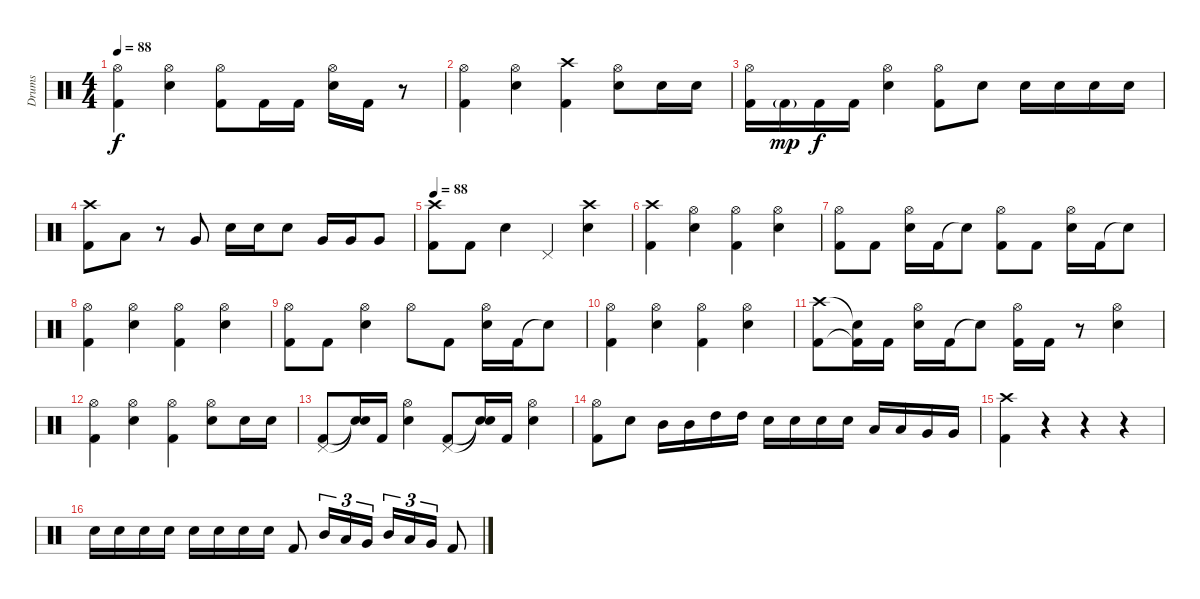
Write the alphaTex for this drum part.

\track ("Drums" "Drums") {instrument percussion}
\staff {score}
\articulation defaults
\ts (4 4)
\tempo 88
\clef neutral
\ks c
("Hi-Hat (open)" "Kick (hit) 2").4{dy f} ("Hi-Hat (open)" "Electric Snare (hit)").4 ("Hi-Hat (open)" "Kick (hit) 2").8 "Kick (hit) 2".16 "Kick (hit) 2".16 ("Hi-Hat (open)" "Electric Snare (hit)").16 "Kick (hit) 2".16 r.8 |
("Hi-Hat (open)" "Kick (hit) 2").4 ("Hi-Hat (open)" "Electric Snare (hit)").4 ("Crash high (hit)" "Kick (hit) 2").4 ("Hi-Hat (open)" "Electric Snare (hit)").8 "Electric Snare (hit)".16 "Electric Snare (hit)".16 |
("Hi-Hat (open)" "Kick (hit) 2").16 "Kick (hit) 2"{g}.16{dy mp} "Kick (hit) 2".16{dy f} "Kick (hit) 2".16 ("Hi-Hat (open)" "Electric Snare (hit)").4 ("Hi-Hat (open)" "Kick (hit) 2").8 "Electric Snare (hit)".8 "Electric Snare (hit)".16 "Electric Snare (hit)".16 "Electric Snare (hit)".16 "Electric Snare (hit)".16 |
("Crash high (hit)" "Kick (hit) 2").8 "Low Tom (hit)".8 r.8 "Very Low Tom (hit)".8 "Electric Snare (hit)".16 "Electric Snare (hit)".16 "Electric Snare (hit)".8 "Very Low Tom (hit)".16 "Very Low Tom (hit)".16 "Very Low Tom (hit)".8 |
\tempo 88
("Crash high (hit)" "Kick (hit) 2").8 "Kick (hit) 2".8 "Electric Snare (hit)".4 "Pedal Hi-Hat (hit)".4 ("Crash high (hit)" "Electric Snare (hit)").4 |
("Crash high (hit)" "Kick (hit) 2").4 ("Hi-Hat (open)" "Electric Snare (hit)").4 ("Hi-Hat (open)" "Kick (hit) 2").4 ("Hi-Hat (open)" "Electric Snare (hit)").4 |
("Hi-Hat (open)" "Kick (hit) 2").8 "Kick (hit) 2".8 ("Hi-Hat (open)" "Electric Snare (hit)").16 "Kick (hit) 2".16 "Snare (hit)"{t}.8 ("Hi-Hat (open)" "Kick (hit) 2").8 "Kick (hit) 2".8 ("Hi-Hat (open)" "Electric Snare (hit)").16 "Kick (hit) 2".16 "Snare (hit)"{t}.8 |
("Hi-Hat (open)" "Kick (hit) 2").4 ("Hi-Hat (open)" "Electric Snare (hit)").4 ("Hi-Hat (open)" "Kick (hit) 2").4 ("Hi-Hat (open)" "Electric Snare (hit)").4 |
("Hi-Hat (open)" "Kick (hit) 2").8 "Kick (hit) 2".8 ("Hi-Hat (open)" "Electric Snare (hit)").4 "Hi-Hat (open)".8 "Kick (hit) 2".8 ("Hi-Hat (open)" "Electric Snare (hit)").16 "Kick (hit) 2".16 "Snare (hit)"{t}.8 |
("Hi-Hat (open)" "Kick (hit) 2").4 ("Hi-Hat (open)" "Electric Snare (hit)").4 ("Hi-Hat (open)" "Kick (hit) 2").4 ("Hi-Hat (open)" "Electric Snare (hit)").4 |
("Crash high (hit)" "Kick (hit) 2").8 ("Snare (hit)"{t} "Kick (hit) 2"{t}).16 "Kick (hit) 2".16 ("Hi-Hat (open)" "Electric Snare (hit)").16 "Kick (hit) 2".16 "Snare (hit)"{t}.8 ("Hi-Hat (open)" "Kick (hit) 2").16 "Kick (hit) 2".16 r.8 ("Hi-Hat (open)" "Electric Snare (hit)").4 |
("Hi-Hat (open)" "Kick (hit) 2").4 ("Hi-Hat (open)" "Electric Snare (hit)").4 ("Hi-Hat (open)" "Kick (hit) 2").4 ("Hi-Hat (open)" "Electric Snare (hit)").8 "Electric Snare (hit)".16 "Electric Snare (hit)".16 |
("Pedal Hi-Hat (hit)" "Kick (hit) 2").8 ("Snare (hit)"{t} "Snare (hit)"{t}).16 "Kick (hit) 2".16 ("Hi-Hat (open)" "Electric Snare (hit)").4 ("Pedal Hi-Hat (hit)" "Kick (hit) 2").8 ("Snare (hit)"{t} "Snare (hit)"{t}).16 "Kick (hit) 2".16 ("Hi-Hat (open)" "Electric Snare (hit)").4 |
("Hi-Hat (open)" "Kick (hit) 2").8 "Electric Snare (hit)".8 "Mid Tom (hit)".16 "Mid Tom (hit)".16 "High Tom (hit)".16 "High Tom (hit)".16 "Electric Snare (hit)".16 "Electric Snare (hit)".16 "Electric Snare (hit)".16 "Electric Snare (hit)".16 "Low Tom (hit)".16 "Low Tom (hit)".16 "Very Low Tom (hit)".16 "Very Low Tom (hit)".16 |
("Crash high (hit)" "Kick (hit) 2").4 r.4 r.4 r.4 |
"Electric Snare (hit)".16 "Electric Snare (hit)".16 "Electric Snare (hit)".16 "Electric Snare (hit)".16 "Electric Snare (hit)".16 "Electric Snare (hit)".16 "Electric Snare (hit)".16 "Electric Snare (hit)".16 "Kick (hit) 2".8 "Mid Tom (hit)".16{tu (3 2)} "Low Tom (hit)".16{tu (3 2)} "Very Low Tom (hit)".16{tu (3 2)} "Mid Tom (hit)".16{tu (3 2)} "Low Tom (hit)".16{tu (3 2)} "Very Low Tom (hit)".16{tu (3 2)} "Kick (hit) 2".8
